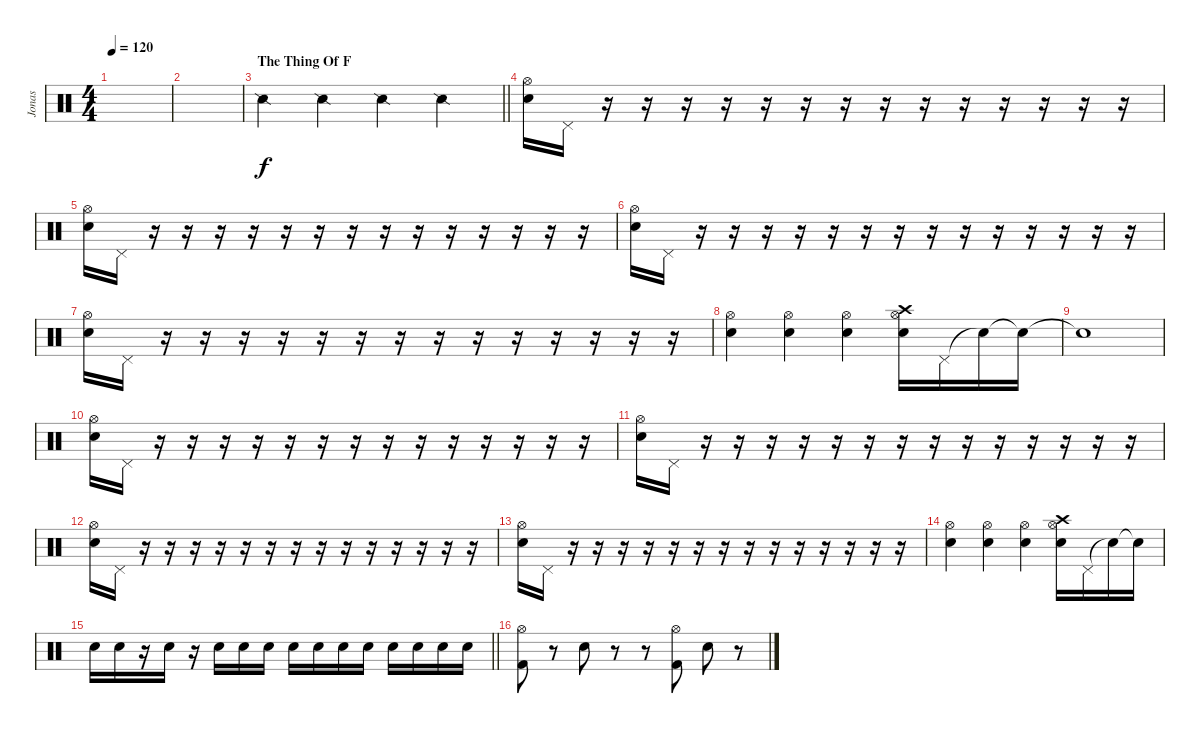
\track ("Jonas" "Jonas") {instrument percussion}
\staff {score}
\articulation defaults
\ts (4 4)
\tempo 120
\clef neutral
\ks c
|
|
\section ("" "The Thing Of F")
\barLineRight lightlight "Snare (side stick) 2".4{volume 16} "Snare (side stick) 2".4 "Snare (side stick) 2".4 "Snare (side stick) 2".4
|
("Hi-Hat (open)" "Snare (hit) 2").16{volume 7} "Pedal Hi-Hat (hit)".16 r.16 r.16 r.16 r.16 r.16 r.16 r.16 r.16 r.16 r.16 r.16 r.16 r.16 r.16 |
("Hi-Hat (open)" "Snare (hit) 2").16 "Pedal Hi-Hat (hit)".16 r.16 r.16 r.16 r.16 r.16 r.16 r.16 r.16 r.16 r.16 r.16 r.16 r.16 r.16 |
("Hi-Hat (open)" "Snare (hit) 2").16 "Pedal Hi-Hat (hit)".16 r.16 r.16 r.16 r.16 r.16 r.16 r.16 r.16 r.16 r.16 r.16 r.16 r.16 r.16 |
("Hi-Hat (open)" "Snare (hit) 2").16 "Pedal Hi-Hat (hit)".16 r.16 r.16 r.16 r.16 r.16 r.16 r.16 r.16 r.16 r.16 r.16 r.16 r.16 r.16 |
("Hi-Hat (open)" "Snare (hit) 2").4 ("Hi-Hat (open)" "Snare (hit) 2").4 ("Hi-Hat (open)" "Snare (hit) 2").4 ("Crash high (hit)" "Hi-Hat (open)" "Snare (hit) 2").16 "Pedal Hi-Hat (hit)".16 "Snare (hit)"{t}.16 "Snare (hit)"{t}.16 |
"Snare (hit)"{t}.1 |
("Hi-Hat (open)" "Snare (hit) 2").16 "Pedal Hi-Hat (hit)".16 r.16 r.16 r.16 r.16 r.16 r.16 r.16 r.16 r.16 r.16 r.16 r.16 r.16 r.16 |
("Hi-Hat (open)" "Snare (hit) 2").16 "Pedal Hi-Hat (hit)".16 r.16 r.16 r.16 r.16 r.16 r.16 r.16 r.16 r.16 r.16 r.16 r.16 r.16 r.16 |
("Hi-Hat (open)" "Snare (hit) 2").16 "Pedal Hi-Hat (hit)".16 r.16 r.16 r.16 r.16 r.16 r.16 r.16 r.16 r.16 r.16 r.16 r.16 r.16 r.16 |
("Hi-Hat (open)" "Snare (hit) 2").16 "Pedal Hi-Hat (hit)".16 r.16 r.16 r.16 r.16 r.16 r.16 r.16 r.16 r.16 r.16 r.16 r.16 r.16 r.16 |
("Hi-Hat (open)" "Snare (hit) 2").4 ("Hi-Hat (open)" "Snare (hit) 2").4 ("Hi-Hat (open)" "Snare (hit) 2").4 ("Crash high (hit)" "Hi-Hat (open)" "Snare (hit) 2").16 "Pedal Hi-Hat (hit)".16 "Snare (hit)"{t}.16 "Snare (hit)"{t}.16 |
\barLineRight lightlight "Snare (hit) 2".16{volume 16} "Snare (hit) 2".16
r.16 "Snare (hit) 2".16 r.16 "Snare (hit) 2".16 "Snare (hit) 2".16 "Snare (hit) 2".16 "Snare (hit) 2".16 "Snare (hit) 2".16 "Snare (hit) 2".16 "Snare (hit) 2".16 "Snare (hit) 2".16 "Snare (hit) 2".16 "Snare (hit) 2".16 "Snare (hit) 2".16 |
("Hi-Hat (open)" "Kick (hit) 2").8 r.8 "Snare (hit) 2".8 r.8 r.8 ("Hi-Hat (open)" "Kick (hit) 2").8 "Snare (hit) 2".8 r.8
